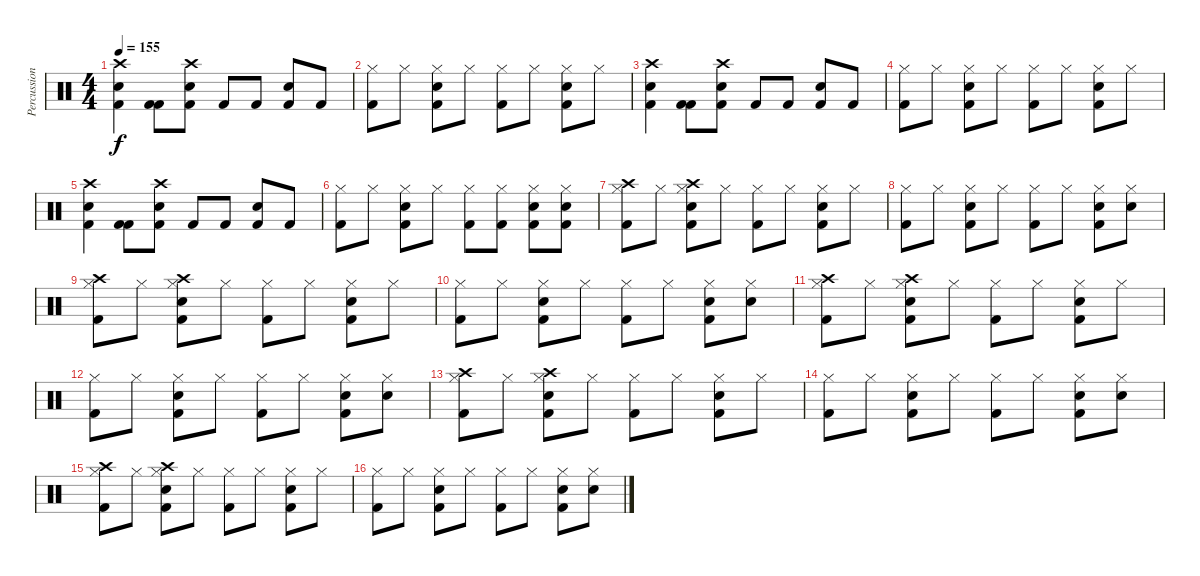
\track ("Percussion" "Percussion") {instrument percussion}
\staff {score}
\articulation defaults
\ts (4 4)
\tempo 155
\clef neutral
\ks c
("Crash high (hit)" "Snare (hit) 2" "Kick (hit) 2").4{dy f} ("Kick (hit) 2" "Kick (hit) 2").8 ("Crash high (hit)" "Snare (hit) 2" "Kick (hit) 2").8 "Kick (hit) 2".8 "Kick (hit) 2".8 ("Snare (hit) 2" "Kick (hit) 2").8 "Kick (hit) 2".8 |
("Kick (hit) 2" "Hi-Hat (closed)").8 "Hi-Hat (closed)".8 ("Snare (hit) 2" "Kick (hit) 2" "Hi-Hat (closed)").8 "Hi-Hat (closed)".8 ("Kick (hit) 2" "Hi-Hat (closed)").8 "Hi-Hat (closed)".8 ("Snare (hit) 2" "Kick (hit) 2" "Hi-Hat (closed)").8 "Hi-Hat (closed)".8 |
("Crash high (hit)" "Snare (hit) 2" "Kick (hit) 2").4 ("Kick (hit) 2" "Kick (hit) 2").8 ("Crash high (hit)" "Snare (hit) 2" "Kick (hit) 2").8 "Kick (hit) 2".8 "Kick (hit) 2".8 ("Snare (hit) 2" "Kick (hit) 2").8 "Kick (hit) 2".8 |
("Kick (hit) 2" "Hi-Hat (closed)").8 "Hi-Hat (closed)".8 ("Snare (hit) 2" "Kick (hit) 2" "Hi-Hat (closed)").8 "Hi-Hat (closed)".8 ("Kick (hit) 2" "Hi-Hat (closed)").8 "Hi-Hat (closed)".8 ("Snare (hit) 2" "Kick (hit) 2" "Hi-Hat (closed)").8 "Hi-Hat (closed)".8 |
("Crash high (hit)" "Snare (hit) 2" "Kick (hit) 2").4 ("Kick (hit) 2" "Kick (hit) 2").8 ("Crash high (hit)" "Snare (hit) 2" "Kick (hit) 2").8 "Kick (hit) 2".8 "Kick (hit) 2".8 ("Snare (hit) 2" "Kick (hit) 2").8 "Kick (hit) 2".8 |
("Kick (hit) 2" "Hi-Hat (closed)").8 "Hi-Hat (closed)".8 ("Snare (hit) 2" "Kick (hit) 2" "Hi-Hat (closed)").8 "Hi-Hat (closed)".8 ("Kick (hit) 2" "Hi-Hat (closed)").8 ("Kick (hit) 2" "Hi-Hat (closed)").8 ("Snare (hit) 2" "Kick (hit) 2" "Hi-Hat (closed)").8 ("Snare (hit) 2" "Kick (hit) 2" "Hi-Hat (closed)").8 |
("Crash high (hit)" "Kick (hit) 2" "Hi-Hat (closed)").8 "Hi-Hat (closed)".8 ("Crash high (hit)" "Snare (hit) 2" "Kick (hit) 2" "Hi-Hat (closed)").8 "Hi-Hat (closed)".8 ("Kick (hit) 2" "Hi-Hat (closed)").8 "Hi-Hat (closed)".8 ("Snare (hit) 2" "Kick (hit) 2" "Hi-Hat (closed)").8 "Hi-Hat (closed)".8 |
("Kick (hit) 2" "Hi-Hat (closed)").8 "Hi-Hat (closed)".8 ("Snare (hit) 2" "Kick (hit) 2" "Hi-Hat (closed)").8 "Hi-Hat (closed)".8 ("Kick (hit) 2" "Hi-Hat (closed)").8 "Hi-Hat (closed)".8 ("Snare (hit) 2" "Kick (hit) 2" "Hi-Hat (closed)").8 ("Snare (hit) 2" "Hi-Hat (closed)").8 |
("Crash high (hit)" "Kick (hit) 2" "Hi-Hat (closed)").8 "Hi-Hat (closed)".8 ("Crash high (hit)" "Snare (hit) 2" "Kick (hit) 2" "Hi-Hat (closed)").8 "Hi-Hat (closed)".8 ("Kick (hit) 2" "Hi-Hat (closed)").8 "Hi-Hat (closed)".8 ("Snare (hit) 2" "Kick (hit) 2" "Hi-Hat (closed)").8 "Hi-Hat (closed)".8 |
("Kick (hit) 2" "Hi-Hat (closed)").8 "Hi-Hat (closed)".8 ("Snare (hit) 2" "Kick (hit) 2" "Hi-Hat (closed)").8 "Hi-Hat (closed)".8 ("Kick (hit) 2" "Hi-Hat (closed)").8 "Hi-Hat (closed)".8 ("Snare (hit) 2" "Kick (hit) 2" "Hi-Hat (closed)").8 ("Snare (hit) 2" "Hi-Hat (closed)").8 |
("Crash high (hit)" "Kick (hit) 2" "Hi-Hat (closed)").8 "Hi-Hat (closed)".8 ("Crash high (hit)" "Snare (hit) 2" "Kick (hit) 2" "Hi-Hat (closed)").8 "Hi-Hat (closed)".8 ("Kick (hit) 2" "Hi-Hat (closed)").8 "Hi-Hat (closed)".8 ("Snare (hit) 2" "Kick (hit) 2" "Hi-Hat (closed)").8 "Hi-Hat (closed)".8 |
("Kick (hit) 2" "Hi-Hat (closed)").8 "Hi-Hat (closed)".8 ("Snare (hit) 2" "Kick (hit) 2" "Hi-Hat (closed)").8 "Hi-Hat (closed)".8 ("Kick (hit) 2" "Hi-Hat (closed)").8 "Hi-Hat (closed)".8 ("Snare (hit) 2" "Kick (hit) 2" "Hi-Hat (closed)").8 ("Snare (hit) 2" "Hi-Hat (closed)").8 |
("Crash high (hit)" "Kick (hit) 2" "Hi-Hat (closed)").8 "Hi-Hat (closed)".8 ("Crash high (hit)" "Snare (hit) 2" "Kick (hit) 2" "Hi-Hat (closed)").8 "Hi-Hat (closed)".8 ("Kick (hit) 2" "Hi-Hat (closed)").8 "Hi-Hat (closed)".8 ("Snare (hit) 2" "Kick (hit) 2" "Hi-Hat (closed)").8 "Hi-Hat (closed)".8 |
("Kick (hit) 2" "Hi-Hat (closed)").8 "Hi-Hat (closed)".8 ("Snare (hit) 2" "Kick (hit) 2" "Hi-Hat (closed)").8 "Hi-Hat (closed)".8 ("Kick (hit) 2" "Hi-Hat (closed)").8 "Hi-Hat (closed)".8 ("Snare (hit) 2" "Kick (hit) 2" "Hi-Hat (closed)").8 ("Snare (hit) 2" "Hi-Hat (closed)").8 |
("Crash high (hit)" "Kick (hit) 2" "Hi-Hat (closed)").8 "Hi-Hat (closed)".8 ("Crash high (hit)" "Snare (hit) 2" "Kick (hit) 2" "Hi-Hat (closed)").8 "Hi-Hat (closed)".8 ("Kick (hit) 2" "Hi-Hat (closed)").8 "Hi-Hat (closed)".8 ("Snare (hit) 2" "Kick (hit) 2" "Hi-Hat (closed)").8 "Hi-Hat (closed)".8 |
("Kick (hit) 2" "Hi-Hat (closed)").8 "Hi-Hat (closed)".8 ("Snare (hit) 2" "Kick (hit) 2" "Hi-Hat (closed)").8 "Hi-Hat (closed)".8 ("Kick (hit) 2" "Hi-Hat (closed)").8 "Hi-Hat (closed)".8 ("Snare (hit) 2" "Kick (hit) 2" "Hi-Hat (closed)").8 ("Snare (hit) 2" "Hi-Hat (closed)").8
